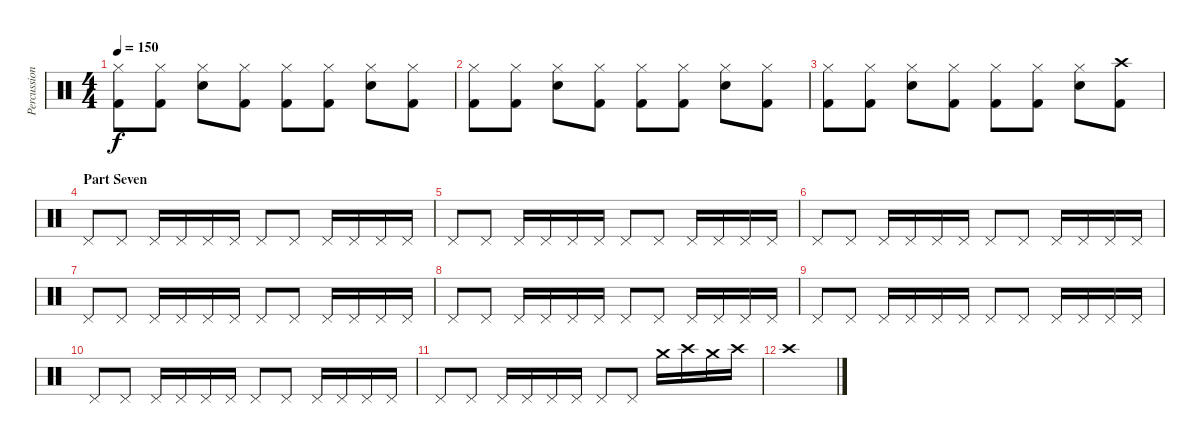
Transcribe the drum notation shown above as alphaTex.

\track ("Percussion" "Percussion") {instrument percussion}
\staff {score}
\articulation defaults
\ts (4 4)
\tempo 150
\clef neutral
\ks c
("Hi-Hat (closed)" "Kick (hit) 2").8{dy f} ("Hi-Hat (closed)" "Kick (hit) 2").8 ("Hi-Hat (closed)" "Electric Snare (hit)").8 ("Hi-Hat (closed)" "Kick (hit) 2").8 ("Hi-Hat (closed)" "Kick (hit) 2").8 ("Hi-Hat (closed)" "Kick (hit) 2").8 ("Hi-Hat (closed)" "Electric Snare (hit)").8 ("Hi-Hat (closed)" "Kick (hit) 2").8 |
("Hi-Hat (closed)" "Kick (hit) 2").8 ("Hi-Hat (closed)" "Kick (hit) 2").8 ("Hi-Hat (closed)" "Electric Snare (hit)").8 ("Hi-Hat (closed)" "Kick (hit) 2").8 ("Hi-Hat (closed)" "Kick (hit) 2").8 ("Hi-Hat (closed)" "Kick (hit) 2").8 ("Hi-Hat (closed)" "Electric Snare (hit)").8 ("Hi-Hat (closed)" "Kick (hit) 2").8 |
("Hi-Hat (closed)" "Kick (hit) 2").8 ("Hi-Hat (closed)" "Kick (hit) 2").8 ("Hi-Hat (closed)" "Electric Snare (hit)").8 ("Hi-Hat (closed)" "Kick (hit) 2").8 ("Hi-Hat (closed)" "Kick (hit) 2").8 ("Hi-Hat (closed)" "Kick (hit) 2").8 ("Hi-Hat (closed)" "Electric Snare (hit)").8 ("Crash high (hit)" "Kick (hit) 2").8 |
\section ("" "Part Seven")
"Pedal Hi-Hat (hit)".8 "Pedal Hi-Hat (hit)".8 "Pedal Hi-Hat (hit)".16 "Pedal Hi-Hat (hit)".16 "Pedal Hi-Hat (hit)".16 "Pedal Hi-Hat (hit)".16 "Pedal Hi-Hat (hit)".8 "Pedal Hi-Hat (hit)".8 "Pedal Hi-Hat (hit)".16 "Pedal Hi-Hat (hit)".16 "Pedal Hi-Hat (hit)".16 "Pedal Hi-Hat (hit)".16 |
"Pedal Hi-Hat (hit)".8 "Pedal Hi-Hat (hit)".8 "Pedal Hi-Hat (hit)".16 "Pedal Hi-Hat (hit)".16 "Pedal Hi-Hat (hit)".16 "Pedal Hi-Hat (hit)".16 "Pedal Hi-Hat (hit)".8 "Pedal Hi-Hat (hit)".8 "Pedal Hi-Hat (hit)".16 "Pedal Hi-Hat (hit)".16 "Pedal Hi-Hat (hit)".16 "Pedal Hi-Hat (hit)".16 |
"Pedal Hi-Hat (hit)".8 "Pedal Hi-Hat (hit)".8 "Pedal Hi-Hat (hit)".16 "Pedal Hi-Hat (hit)".16 "Pedal Hi-Hat (hit)".16 "Pedal Hi-Hat (hit)".16 "Pedal Hi-Hat (hit)".8 "Pedal Hi-Hat (hit)".8 "Pedal Hi-Hat (hit)".16 "Pedal Hi-Hat (hit)".16 "Pedal Hi-Hat (hit)".16 "Pedal Hi-Hat (hit)".16 |
"Pedal Hi-Hat (hit)".8 "Pedal Hi-Hat (hit)".8 "Pedal Hi-Hat (hit)".16 "Pedal Hi-Hat (hit)".16 "Pedal Hi-Hat (hit)".16 "Pedal Hi-Hat (hit)".16 "Pedal Hi-Hat (hit)".8 "Pedal Hi-Hat (hit)".8 "Pedal Hi-Hat (hit)".16 "Pedal Hi-Hat (hit)".16 "Pedal Hi-Hat (hit)".16 "Pedal Hi-Hat (hit)".16 |
"Pedal Hi-Hat (hit)".8 "Pedal Hi-Hat (hit)".8 "Pedal Hi-Hat (hit)".16 "Pedal Hi-Hat (hit)".16 "Pedal Hi-Hat (hit)".16 "Pedal Hi-Hat (hit)".16 "Pedal Hi-Hat (hit)".8 "Pedal Hi-Hat (hit)".8 "Pedal Hi-Hat (hit)".16 "Pedal Hi-Hat (hit)".16 "Pedal Hi-Hat (hit)".16 "Pedal Hi-Hat (hit)".16 |
"Pedal Hi-Hat (hit)".8 "Pedal Hi-Hat (hit)".8 "Pedal Hi-Hat (hit)".16 "Pedal Hi-Hat (hit)".16 "Pedal Hi-Hat (hit)".16 "Pedal Hi-Hat (hit)".16 "Pedal Hi-Hat (hit)".8 "Pedal Hi-Hat (hit)".8 "Pedal Hi-Hat (hit)".16 "Pedal Hi-Hat (hit)".16 "Pedal Hi-Hat (hit)".16 "Pedal Hi-Hat (hit)".16 |
"Pedal Hi-Hat (hit)".8 "Pedal Hi-Hat (hit)".8 "Pedal Hi-Hat (hit)".16 "Pedal Hi-Hat (hit)".16 "Pedal Hi-Hat (hit)".16 "Pedal Hi-Hat (hit)".16 "Pedal Hi-Hat (hit)".8 "Pedal Hi-Hat (hit)".8 "Pedal Hi-Hat (hit)".16 "Pedal Hi-Hat (hit)".16 "Pedal Hi-Hat (hit)".16 "Pedal Hi-Hat (hit)".16 |
"Pedal Hi-Hat (hit)".8 "Pedal Hi-Hat (hit)".8 "Pedal Hi-Hat (hit)".16 "Pedal Hi-Hat (hit)".16 "Pedal Hi-Hat (hit)".16 "Pedal Hi-Hat (hit)".16 "Pedal Hi-Hat (hit)".8 "Pedal Hi-Hat (hit)".8 "Crash medium (hit)".16 "Crash high (hit)".16 "Crash medium (hit)".16 "Crash high (hit)".16 |
"Crash high (hit)".1
